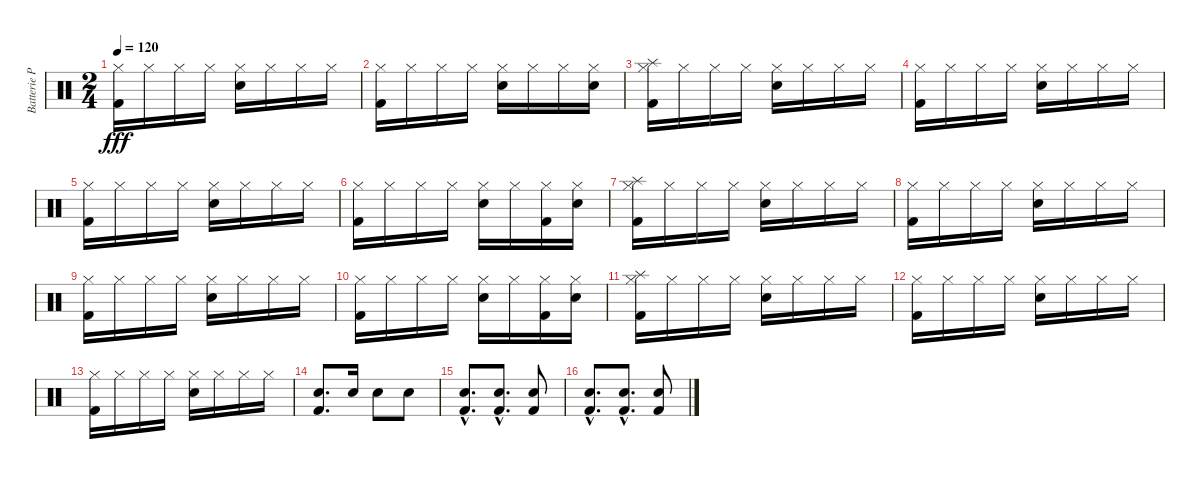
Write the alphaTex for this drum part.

\track ("Batterie Pako" "Batterie P") {instrument percussion}
\staff {score}
\articulation defaults
\ts (2 4)
\tempo 120
\clef neutral
\ks c
("Kick (hit) 2" "Hi-Hat (closed)").16{dy fff} "Hi-Hat (closed)".16 "Hi-Hat (closed)".16 "Hi-Hat (closed)".16 ("Hi-Hat (closed)" "Electric Snare (hit)").16 "Hi-Hat (closed)".16 "Hi-Hat (closed)".16 "Hi-Hat (closed)".16 |
("Kick (hit) 2" "Hi-Hat (closed)").16 "Hi-Hat (closed)".16 "Hi-Hat (closed)".16 "Hi-Hat (closed)".16 ("Electric Snare (hit)" "Hi-Hat (closed)").16 "Hi-Hat (closed)".16 "Hi-Hat (closed)".16 ("Electric Snare (hit)" "Hi-Hat (closed)").16 |
("Kick (hit) 2" "Hi-Hat (closed)" "Splash (hit)").16 "Hi-Hat (closed)".16 "Hi-Hat (closed)".16 "Hi-Hat (closed)".16 ("Hi-Hat (closed)" "Electric Snare (hit)").16 "Hi-Hat (closed)".16 "Hi-Hat (closed)".16 "Hi-Hat (closed)".16 |
("Kick (hit) 2" "Hi-Hat (closed)").16 "Hi-Hat (closed)".16 "Hi-Hat (closed)".16 "Hi-Hat (closed)".16 ("Hi-Hat (closed)" "Electric Snare (hit)").16 "Hi-Hat (closed)".16 "Hi-Hat (closed)".16 "Hi-Hat (closed)".16 |
("Kick (hit) 2" "Hi-Hat (closed)").16 "Hi-Hat (closed)".16 "Hi-Hat (closed)".16 "Hi-Hat (closed)".16 ("Hi-Hat (closed)" "Electric Snare (hit)").16 "Hi-Hat (closed)".16 "Hi-Hat (closed)".16 "Hi-Hat (closed)".16 |
("Kick (hit) 2" "Hi-Hat (closed)").16 "Hi-Hat (closed)".16 "Hi-Hat (closed)".16 "Hi-Hat (closed)".16 ("Electric Snare (hit)" "Hi-Hat (closed)").16 "Hi-Hat (closed)".16 ("Kick (hit) 2" "Hi-Hat (closed)").16 ("Electric Snare (hit)" "Hi-Hat (closed)").16 |
("Kick (hit) 2" "Hi-Hat (closed)" "Splash (hit)").16 "Hi-Hat (closed)".16 "Hi-Hat (closed)".16 "Hi-Hat (closed)".16 ("Hi-Hat (closed)" "Electric Snare (hit)").16 "Hi-Hat (closed)".16 "Hi-Hat (closed)".16 "Hi-Hat (closed)".16 |
("Kick (hit) 2" "Hi-Hat (closed)").16 "Hi-Hat (closed)".16 "Hi-Hat (closed)".16 "Hi-Hat (closed)".16 ("Hi-Hat (closed)" "Electric Snare (hit)").16 "Hi-Hat (closed)".16 "Hi-Hat (closed)".16 "Hi-Hat (closed)".16 |
("Kick (hit) 2" "Hi-Hat (closed)").16 "Hi-Hat (closed)".16 "Hi-Hat (closed)".16 "Hi-Hat (closed)".16 ("Hi-Hat (closed)" "Electric Snare (hit)").16 "Hi-Hat (closed)".16 "Hi-Hat (closed)".16 "Hi-Hat (closed)".16 |
("Kick (hit) 2" "Hi-Hat (closed)").16 "Hi-Hat (closed)".16 "Hi-Hat (closed)".16 "Hi-Hat (closed)".16 ("Electric Snare (hit)" "Hi-Hat (closed)").16 "Hi-Hat (closed)".16 ("Kick (hit) 2" "Hi-Hat (closed)").16 ("Electric Snare (hit)" "Hi-Hat (closed)").16 |
("Kick (hit) 2" "Hi-Hat (closed)" "Splash (hit)").16 "Hi-Hat (closed)".16 "Hi-Hat (closed)".16 "Hi-Hat (closed)".16 ("Hi-Hat (closed)" "Electric Snare (hit)").16 "Hi-Hat (closed)".16 "Hi-Hat (closed)".16 "Hi-Hat (closed)".16 |
("Kick (hit) 2" "Hi-Hat (closed)").16 "Hi-Hat (closed)".16 "Hi-Hat (closed)".16 "Hi-Hat (closed)".16 ("Hi-Hat (closed)" "Electric Snare (hit)").16 "Hi-Hat (closed)".16 "Hi-Hat (closed)".16 "Hi-Hat (closed)".16 |
("Kick (hit) 2" "Hi-Hat (closed)").16 "Hi-Hat (closed)".16 "Hi-Hat (closed)".16 "Hi-Hat (closed)".16 ("Hi-Hat (closed)" "Electric Snare (hit)").16 "Hi-Hat (closed)".16 "Hi-Hat (closed)".16 "Hi-Hat (closed)".16 |
("Kick (hit) 2" "Electric Snare (hit)").8{d} "Electric Snare (hit)".16 "Electric Snare (hit)".8 "Electric Snare (hit)".8 |
("Kick (hit) 2"{hac} "Electric Snare (hit)"{hac}).8{d} ("Kick (hit) 2"{hac} "Electric Snare (hit)"{hac}).8{d} ("Kick (hit) 2" "Electric Snare (hit)").8 |
("Kick (hit) 2"{hac} "Electric Snare (hit)"{hac}).8{d} ("Kick (hit) 2"{hac} "Electric Snare (hit)"{hac}).8{d} ("Kick (hit) 2" "Electric Snare (hit)").8
